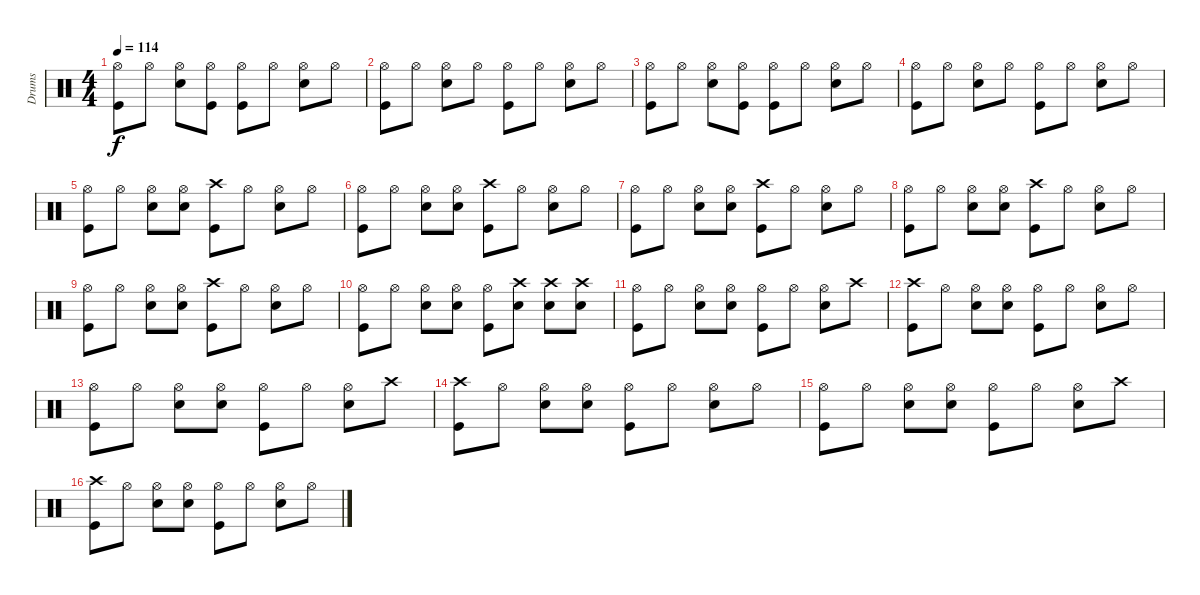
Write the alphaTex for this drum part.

\track ("Drums" "Drums") {instrument percussion}
\staff {score}
\articulation defaults
\ts (4 4)
\tempo 114
\clef neutral
\ks c
("Hi-Hat (open)" "Kick (hit)").8{dy f} "Hi-Hat (open)".8 ("Hi-Hat (open)" "Snare (hit) 2").8 ("Hi-Hat (open)" "Kick (hit)").8 ("Hi-Hat (open)" "Kick (hit)").8 "Hi-Hat (open)".8 ("Hi-Hat (open)" "Snare (hit) 2").8 "Hi-Hat (open)".8 |
("Hi-Hat (open)" "Kick (hit)").8 "Hi-Hat (open)".8 ("Hi-Hat (open)" "Snare (hit) 2").8 "Hi-Hat (open)".8 ("Hi-Hat (open)" "Kick (hit)").8 "Hi-Hat (open)".8 ("Hi-Hat (open)" "Snare (hit) 2").8 "Hi-Hat (open)".8 |
("Hi-Hat (open)" "Kick (hit)").8 "Hi-Hat (open)".8 ("Hi-Hat (open)" "Snare (hit) 2").8 ("Hi-Hat (open)" "Kick (hit)").8 ("Hi-Hat (open)" "Kick (hit)").8 "Hi-Hat (open)".8 ("Hi-Hat (open)" "Snare (hit) 2").8 "Hi-Hat (open)".8 |
("Hi-Hat (open)" "Kick (hit)").8 "Hi-Hat (open)".8 ("Hi-Hat (open)" "Snare (hit) 2").8 "Hi-Hat (open)".8 ("Hi-Hat (open)" "Kick (hit)").8 "Hi-Hat (open)".8 ("Hi-Hat (open)" "Snare (hit) 2").8 "Hi-Hat (open)".8 |
("Hi-Hat (open)" "Kick (hit)").8 "Hi-Hat (open)".8 ("Hi-Hat (open)" "Snare (hit) 2").8 ("Hi-Hat (open)" "Snare (hit) 2").8 ("Crash high (hit)" "Kick (hit)").8 "Hi-Hat (open)".8 ("Hi-Hat (open)" "Snare (hit) 2").8 "Hi-Hat (open)".8 |
("Hi-Hat (open)" "Kick (hit)").8 "Hi-Hat (open)".8 ("Hi-Hat (open)" "Snare (hit) 2").8 ("Hi-Hat (open)" "Snare (hit) 2").8 ("Crash high (hit)" "Kick (hit)").8 "Hi-Hat (open)".8 ("Hi-Hat (open)" "Snare (hit) 2").8 "Hi-Hat (open)".8 |
("Hi-Hat (open)" "Kick (hit)").8 "Hi-Hat (open)".8 ("Hi-Hat (open)" "Snare (hit) 2").8 ("Hi-Hat (open)" "Snare (hit) 2").8 ("Crash high (hit)" "Kick (hit)").8 "Hi-Hat (open)".8 ("Hi-Hat (open)" "Snare (hit) 2").8 "Hi-Hat (open)".8 |
("Hi-Hat (open)" "Kick (hit)").8 "Hi-Hat (open)".8 ("Hi-Hat (open)" "Snare (hit) 2").8 ("Hi-Hat (open)" "Snare (hit) 2").8 ("Crash high (hit)" "Kick (hit)").8 "Hi-Hat (open)".8 ("Hi-Hat (open)" "Snare (hit) 2").8 "Hi-Hat (open)".8 |
("Hi-Hat (open)" "Kick (hit)").8 "Hi-Hat (open)".8 ("Hi-Hat (open)" "Snare (hit) 2").8 ("Hi-Hat (open)" "Snare (hit) 2").8 ("Crash high (hit)" "Kick (hit)").8 "Hi-Hat (open)".8 ("Hi-Hat (open)" "Snare (hit) 2").8 "Hi-Hat (open)".8 |
("Hi-Hat (open)" "Kick (hit)").8 "Hi-Hat (open)".8 ("Hi-Hat (open)" "Snare (hit) 2").8 ("Hi-Hat (open)" "Snare (hit) 2").8 ("Hi-Hat (open)" "Kick (hit)").8 ("Crash high (hit)" "Snare (hit) 2").8 ("Crash high (hit)" "Snare (hit) 2").8 ("Crash high (hit)" "Snare (hit) 2").8 |
("Hi-Hat (open)" "Kick (hit)").8 "Hi-Hat (open)".8 ("Hi-Hat (open)" "Snare (hit) 2").8 ("Hi-Hat (open)" "Snare (hit) 2").8 ("Hi-Hat (open)" "Kick (hit)").8 "Hi-Hat (open)".8 ("Hi-Hat (open)" "Snare (hit) 2").8 "Crash high (hit)".8 |
("Crash high (hit)" "Kick (hit)").8 "Hi-Hat (open)".8 ("Hi-Hat (open)" "Snare (hit) 2").8 ("Hi-Hat (open)" "Snare (hit) 2").8 ("Hi-Hat (open)" "Kick (hit)").8 "Hi-Hat (open)".8 ("Hi-Hat (open)" "Snare (hit) 2").8 "Hi-Hat (open)".8 |
("Hi-Hat (open)" "Kick (hit)").8 "Hi-Hat (open)".8 ("Hi-Hat (open)" "Snare (hit) 2").8 ("Hi-Hat (open)" "Snare (hit) 2").8 ("Hi-Hat (open)" "Kick (hit)").8 "Hi-Hat (open)".8 ("Hi-Hat (open)" "Snare (hit) 2").8 "Crash high (hit)".8 |
("Crash high (hit)" "Kick (hit)").8 "Hi-Hat (open)".8 ("Hi-Hat (open)" "Snare (hit) 2").8 ("Hi-Hat (open)" "Snare (hit) 2").8 ("Hi-Hat (open)" "Kick (hit)").8 "Hi-Hat (open)".8 ("Hi-Hat (open)" "Snare (hit) 2").8 "Hi-Hat (open)".8 |
("Hi-Hat (open)" "Kick (hit)").8 "Hi-Hat (open)".8 ("Hi-Hat (open)" "Snare (hit) 2").8 ("Hi-Hat (open)" "Snare (hit) 2").8 ("Hi-Hat (open)" "Kick (hit)").8 "Hi-Hat (open)".8 ("Hi-Hat (open)" "Snare (hit) 2").8 "Crash high (hit)".8 |
("Crash high (hit)" "Kick (hit)").8 "Hi-Hat (open)".8 ("Hi-Hat (open)" "Snare (hit) 2").8 ("Hi-Hat (open)" "Snare (hit) 2").8 ("Hi-Hat (open)" "Kick (hit)").8 "Hi-Hat (open)".8 ("Hi-Hat (open)" "Snare (hit) 2").8 "Hi-Hat (open)".8
